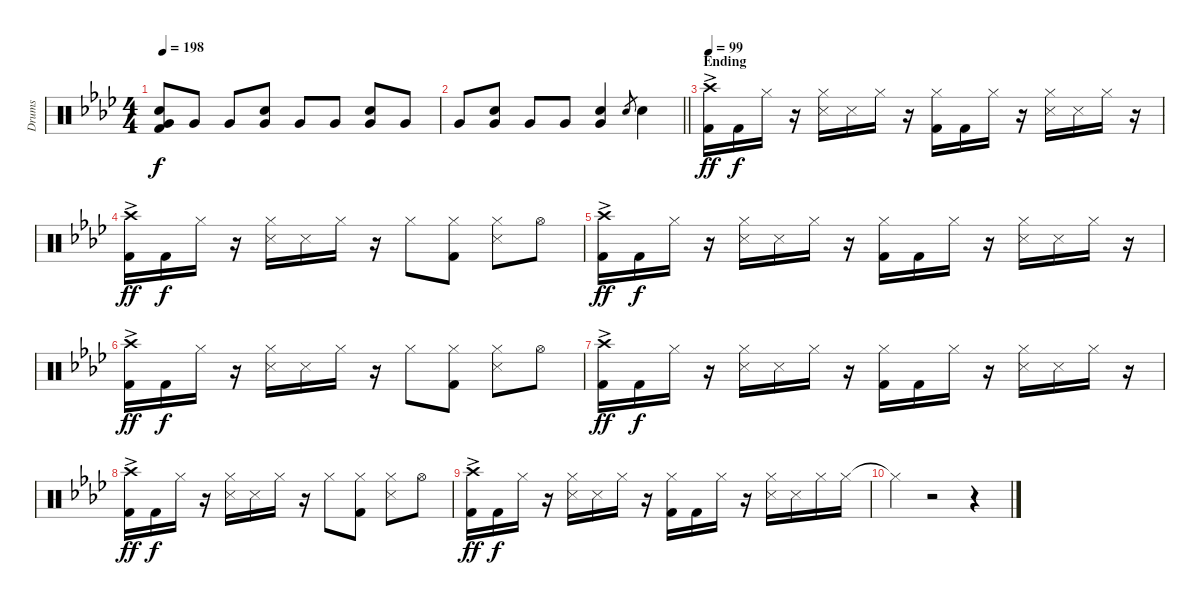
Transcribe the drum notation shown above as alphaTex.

\track ("Drums" "Drums") {instrument percussion}
\staff {score}
\articulation defaults
\ts (4 4)
\tempo 198
\clef neutral
\ks ab
("Snare (hit) 2" "Very Low Tom (hit)" "Kick (hit) 2").8{dy f} "Very Low Tom (hit)".8 "Very Low Tom (hit)".8 ("Snare (hit) 2" "Very Low Tom (hit)").8 "Very Low Tom (hit)".8 "Very Low Tom (hit)".8 ("Snare (hit) 2" "Very Low Tom (hit)").8 "Very Low Tom (hit)".8 |
\barLineRight lightlight "Very Low Tom (hit)".8
("Snare (hit) 2" "Very Low Tom (hit)").8 "Very Low Tom (hit)".8 "Very Low Tom (hit)".8 ("Snare (hit) 2" "Very Low Tom (hit)").4 "Snare (hit) 2".8{gr} "Snare (hit) 2".4 |
\section ("" "Ending")
\tempo 99
("Crash high (hit)"{ac} "Kick (hit) 2").16{dy ff} "Kick (hit) 2".16{dy f} "Hi-Hat (closed)".16 r.16 ("Hi-Hat (closed)" "Snare (side stick) 3").16 "Snare (side stick) 3".16 "Hi-Hat (closed)".16 r.16 ("Hi-Hat (closed)" "Kick (hit) 2").16 "Kick (hit) 2".16 "Hi-Hat (closed)".16 r.16 ("Hi-Hat (closed)" "Snare (side stick) 3").16 "Snare (side stick) 3".16 "Hi-Hat (closed)".16 r.16 |
("Crash high (hit)"{ac} "Kick (hit) 2").16{dy ff} "Kick (hit) 2".16{dy f} "Hi-Hat (closed)".16 r.16 ("Hi-Hat (closed)" "Snare (side stick) 3").16 "Snare (side stick) 3".16 "Hi-Hat (closed)".16 r.16 "Hi-Hat (closed)".8 ("Hi-Hat (closed)" "Kick (hit) 2").8 ("Hi-Hat (closed)" "Snare (side stick) 3").8 "Hi-Hat (open)".8 |
("Crash high (hit)"{ac} "Kick (hit) 2").16{dy ff} "Kick (hit) 2".16{dy f} "Hi-Hat (closed)".16 r.16 ("Hi-Hat (closed)" "Snare (side stick) 3").16 "Snare (side stick) 3".16 "Hi-Hat (closed)".16 r.16 ("Hi-Hat (closed)" "Kick (hit) 2").16 "Kick (hit) 2".16 "Hi-Hat (closed)".16 r.16 ("Hi-Hat (closed)" "Snare (side stick) 3").16 "Snare (side stick) 3".16 "Hi-Hat (closed)".16 r.16 |
("Crash high (hit)"{ac} "Kick (hit) 2").16{dy ff} "Kick (hit) 2".16{dy f} "Hi-Hat (closed)".16 r.16 ("Hi-Hat (closed)" "Snare (side stick) 3").16 "Snare (side stick) 3".16 "Hi-Hat (closed)".16 r.16 "Hi-Hat (closed)".8 ("Hi-Hat (closed)" "Kick (hit) 2").8 ("Hi-Hat (closed)" "Snare (side stick) 3").8 "Hi-Hat (open)".8 |
("Crash high (hit)"{ac} "Kick (hit) 2").16{dy ff} "Kick (hit) 2".16{dy f} "Hi-Hat (closed)".16 r.16 ("Hi-Hat (closed)" "Snare (side stick) 3").16 "Snare (side stick) 3".16 "Hi-Hat (closed)".16 r.16 ("Hi-Hat (closed)" "Kick (hit) 2").16 "Kick (hit) 2".16 "Hi-Hat (closed)".16 r.16 ("Hi-Hat (closed)" "Snare (side stick) 3").16 "Snare (side stick) 3".16 "Hi-Hat (closed)".16 r.16 |
("Crash high (hit)"{ac} "Kick (hit) 2").16{dy ff} "Kick (hit) 2".16{dy f} "Hi-Hat (closed)".16 r.16 ("Hi-Hat (closed)" "Snare (side stick) 3").16 "Snare (side stick) 3".16 "Hi-Hat (closed)".16 r.16 "Hi-Hat (closed)".8 ("Hi-Hat (closed)" "Kick (hit) 2").8 ("Hi-Hat (closed)" "Snare (side stick) 3").8 "Hi-Hat (open)".8 |
("Crash high (hit)"{ac} "Kick (hit) 2").16{dy ff} "Kick (hit) 2".16{dy f} "Hi-Hat (closed)".16 r.16 ("Hi-Hat (closed)" "Snare (side stick) 3").16 "Snare (side stick) 3".16 "Hi-Hat (closed)".16 r.16 ("Hi-Hat (closed)" "Kick (hit) 2").16 "Kick (hit) 2".16 "Hi-Hat (closed)".16 r.16 ("Hi-Hat (closed)" "Snare (side stick) 3").16 "Snare (side stick) 3".16 "Hi-Hat (closed)".16 "Hi-Hat (closed)".16 |
"Hi-Hat (closed)"{t}.4 r.2 r.4
